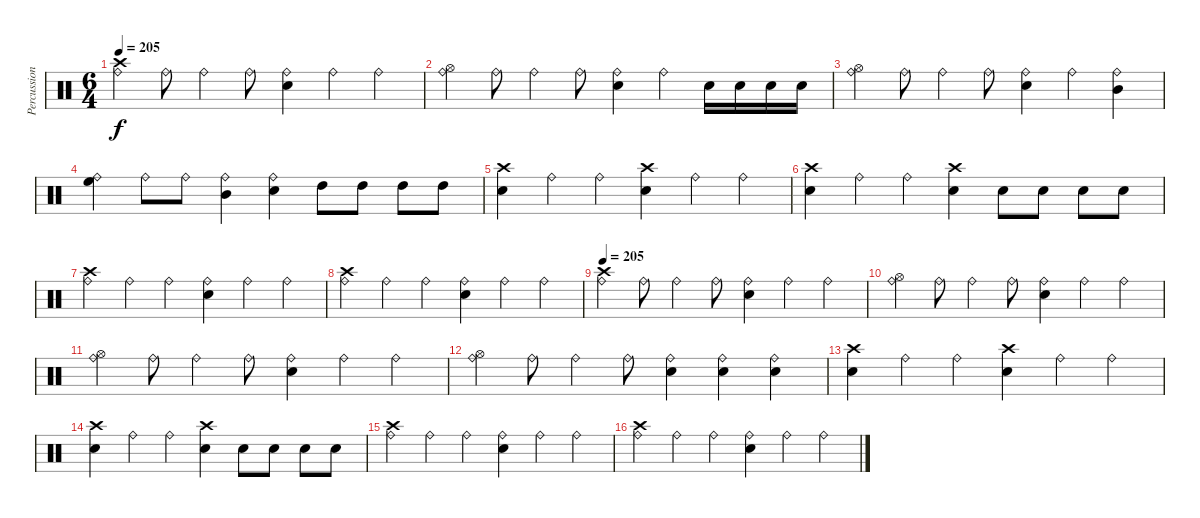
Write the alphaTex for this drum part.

\track ("Percussion" "Percussion") {instrument percussion}
\staff {score}
\articulation defaults
\ts (6 4)
\tempo 205
\clef neutral
\ks c
("Ride (bell)" "Crash high (hit)").4{dy f volume 12} "Ride (bell)".8 "Ride (bell)".4 "Ride (bell)".8 ("Ride (bell)" "Electric Snare (hit)").4 "Ride (bell)".4 "Ride (bell)".4 |
("Ride (bell)" "Hi-Hat (open)").4 "Ride (bell)".8 "Ride (bell)".4 "Ride (bell)".8 ("Ride (bell)" "Electric Snare (hit)").4 "Ride (bell)".4 "Electric Snare (hit)".16 "Electric Snare (hit)".16 "Electric Snare (hit)".16 "Electric Snare (hit)".16 |
("Ride (bell)" "Hi-Hat (open)").4{volume 12} "Ride (bell)".8 "Ride (bell)".4 "Ride (bell)".8 ("Ride (bell)" "Electric Snare (hit)").4 "Ride (bell)".4 ("Ride (bell)" "Mid Tom (hit)").4 |
("Ride (bell)" "High Floor Tom (hit)").4 "Ride (bell)".8 "Ride (bell)".8 ("Ride (bell)" "Mid Tom (hit)").4 ("Ride (bell)" "Electric Snare (hit)").4 "High Tom (hit)".8 "High Tom (hit)".8 "High Tom (hit)".8 "High Tom (hit)".8 |
("Crash high (hit)" "Snare (hit) 2").4 "Ride (bell)".4 "Ride (bell)".4 ("Crash high (hit)" "Snare (hit) 2").4 "Ride (bell)".4 "Ride (bell)".4 |
("Crash high (hit)" "Snare (hit) 2").4 "Ride (bell)".4 "Ride (bell)".4 ("Crash high (hit)" "Snare (hit) 2").4 "Electric Snare (hit)".8 "Electric Snare (hit)".8 "Electric Snare (hit)".8 "Electric Snare (hit)".8 |
("Ride (bell)" "Crash high (hit)").4 "Ride (bell)".4 "Ride (bell)".4 ("Ride (bell)" "Electric Snare (hit)").4 "Ride (bell)".4 "Ride (bell)".4 |
("Ride (bell)" "Crash high (hit)").4 "Ride (bell)".4 "Ride (bell)".4 ("Ride (bell)" "Electric Snare (hit)").4 "Ride (bell)".4 "Ride (bell)".4 |
\tempo 205
("Ride (bell)" "Crash high (hit)").4{volume 12} "Ride (bell)".8 "Ride (bell)".4 "Ride (bell)".8 ("Ride (bell)" "Electric Snare (hit)").4 "Ride (bell)".4 "Ride (bell)".4 |
("Ride (bell)" "Hi-Hat (open)").4 "Ride (bell)".8 "Ride (bell)".4 "Ride (bell)".8 ("Ride (bell)" "Electric Snare (hit)").4 "Ride (bell)".4 "Ride (bell)".4 |
("Ride (bell)" "Hi-Hat (open)").4{volume 12} "Ride (bell)".8 "Ride (bell)".4 "Ride (bell)".8 ("Ride (bell)" "Electric Snare (hit)").4 "Ride (bell)".4 "Ride (bell)".4 |
("Ride (bell)" "Hi-Hat (open)").4 "Ride (bell)".8 "Ride (bell)".4 "Ride (bell)".8 ("Ride (bell)" "Electric Snare (hit)").4 ("Ride (bell)" "Snare (hit) 2").4 ("Ride (bell)" "Snare (hit) 2").4 |
("Crash high (hit)" "Snare (hit) 2").4 "Ride (bell)".4 "Ride (bell)".4 ("Crash high (hit)" "Snare (hit) 2").4 "Ride (bell)".4 "Ride (bell)".4 |
("Crash high (hit)" "Snare (hit) 2").4 "Ride (bell)".4 "Ride (bell)".4 ("Crash high (hit)" "Snare (hit) 2").4 "Electric Snare (hit)".8 "Electric Snare (hit)".8 "Electric Snare (hit)".8 "Electric Snare (hit)".8 |
("Ride (bell)" "Crash high (hit)").4 "Ride (bell)".4 "Ride (bell)".4 ("Ride (bell)" "Electric Snare (hit)").4 "Ride (bell)".4 "Ride (bell)".4 |
("Ride (bell)" "Crash high (hit)").4 "Ride (bell)".4 "Ride (bell)".4 ("Ride (bell)" "Electric Snare (hit)").4 "Ride (bell)".4 "Ride (bell)".4
